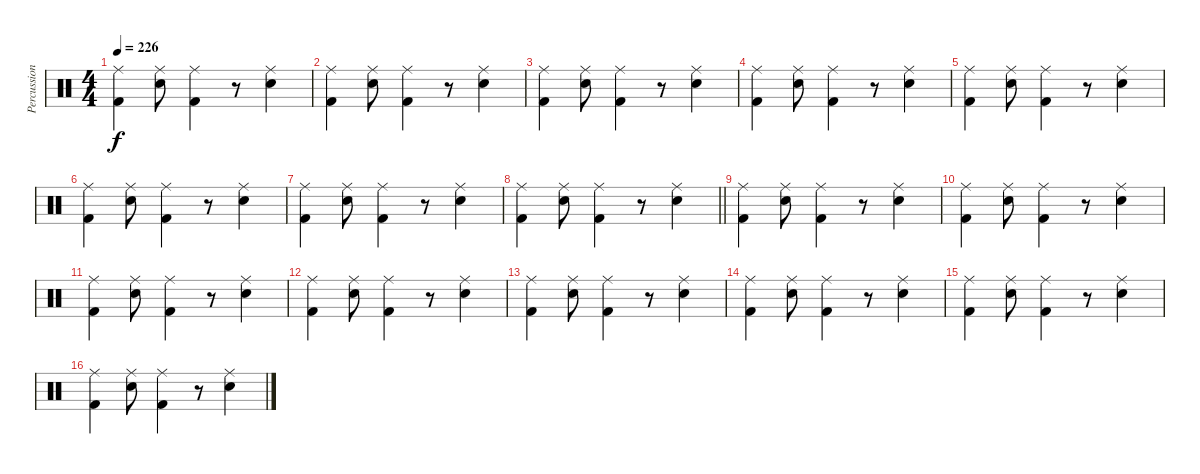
\track ("Percussion" "Percussion") {instrument percussion}
\staff {score}
\articulation defaults
\ts (4 4)
\tempo 226
\clef neutral
\ks c
("Ride (middle)" "Kick (hit) 2").4{dy f} ("Ride (middle)" "Snare (hit) 2").8 ("Ride (middle)" "Kick (hit) 2").4 r.8 ("Ride (middle)" "Snare (hit) 2").4 |
("Ride (middle)" "Kick (hit) 2").4 ("Ride (middle)" "Snare (hit) 2").8 ("Ride (middle)" "Kick (hit) 2").4 r.8 ("Ride (middle)" "Snare (hit) 2").4 |
("Ride (middle)" "Kick (hit) 2").4 ("Ride (middle)" "Snare (hit) 2").8 ("Ride (middle)" "Kick (hit) 2").4 r.8 ("Ride (middle)" "Snare (hit) 2").4 |
("Ride (middle)" "Kick (hit) 2").4 ("Ride (middle)" "Snare (hit) 2").8 ("Ride (middle)" "Kick (hit) 2").4 r.8 ("Ride (middle)" "Snare (hit) 2").4 |
("Ride (middle)" "Kick (hit) 2").4 ("Ride (middle)" "Snare (hit) 2").8 ("Ride (middle)" "Kick (hit) 2").4 r.8 ("Ride (middle)" "Snare (hit) 2").4 |
("Ride (middle)" "Kick (hit) 2").4 ("Ride (middle)" "Snare (hit) 2").8 ("Ride (middle)" "Kick (hit) 2").4 r.8 ("Ride (middle)" "Snare (hit) 2").4 |
("Ride (middle)" "Kick (hit) 2").4 ("Ride (middle)" "Snare (hit) 2").8 ("Ride (middle)" "Kick (hit) 2").4 r.8 ("Ride (middle)" "Snare (hit) 2").4 |
\barLineRight lightlight
("Ride (middle)" "Kick (hit) 2").4 ("Ride (middle)" "Snare (hit) 2").8 ("Ride (middle)" "Kick (hit) 2").4 r.8 ("Ride (middle)" "Snare (hit) 2").4 |
("Ride (middle)" "Kick (hit) 2").4 ("Ride (middle)" "Snare (hit) 2").8 ("Ride (middle)" "Kick (hit) 2").4 r.8 ("Ride (middle)" "Snare (hit) 2").4 |
("Ride (middle)" "Kick (hit) 2").4 ("Ride (middle)" "Snare (hit) 2").8 ("Ride (middle)" "Kick (hit) 2").4 r.8 ("Ride (middle)" "Snare (hit) 2").4 |
("Ride (middle)" "Kick (hit) 2").4 ("Ride (middle)" "Snare (hit) 2").8 ("Ride (middle)" "Kick (hit) 2").4 r.8 ("Ride (middle)" "Snare (hit) 2").4 |
("Ride (middle)" "Kick (hit) 2").4 ("Ride (middle)" "Snare (hit) 2").8 ("Ride (middle)" "Kick (hit) 2").4 r.8 ("Ride (middle)" "Snare (hit) 2").4 |
("Ride (middle)" "Kick (hit) 2").4 ("Ride (middle)" "Snare (hit) 2").8 ("Ride (middle)" "Kick (hit) 2").4 r.8 ("Ride (middle)" "Snare (hit) 2").4 |
("Ride (middle)" "Kick (hit) 2").4 ("Ride (middle)" "Snare (hit) 2").8 ("Ride (middle)" "Kick (hit) 2").4 r.8 ("Ride (middle)" "Snare (hit) 2").4 |
("Ride (middle)" "Kick (hit) 2").4 ("Ride (middle)" "Snare (hit) 2").8 ("Ride (middle)" "Kick (hit) 2").4 r.8 ("Ride (middle)" "Snare (hit) 2").4 |
("Ride (middle)" "Kick (hit) 2").4 ("Ride (middle)" "Snare (hit) 2").8 ("Ride (middle)" "Kick (hit) 2").4 r.8 ("Ride (middle)" "Snare (hit) 2").4
